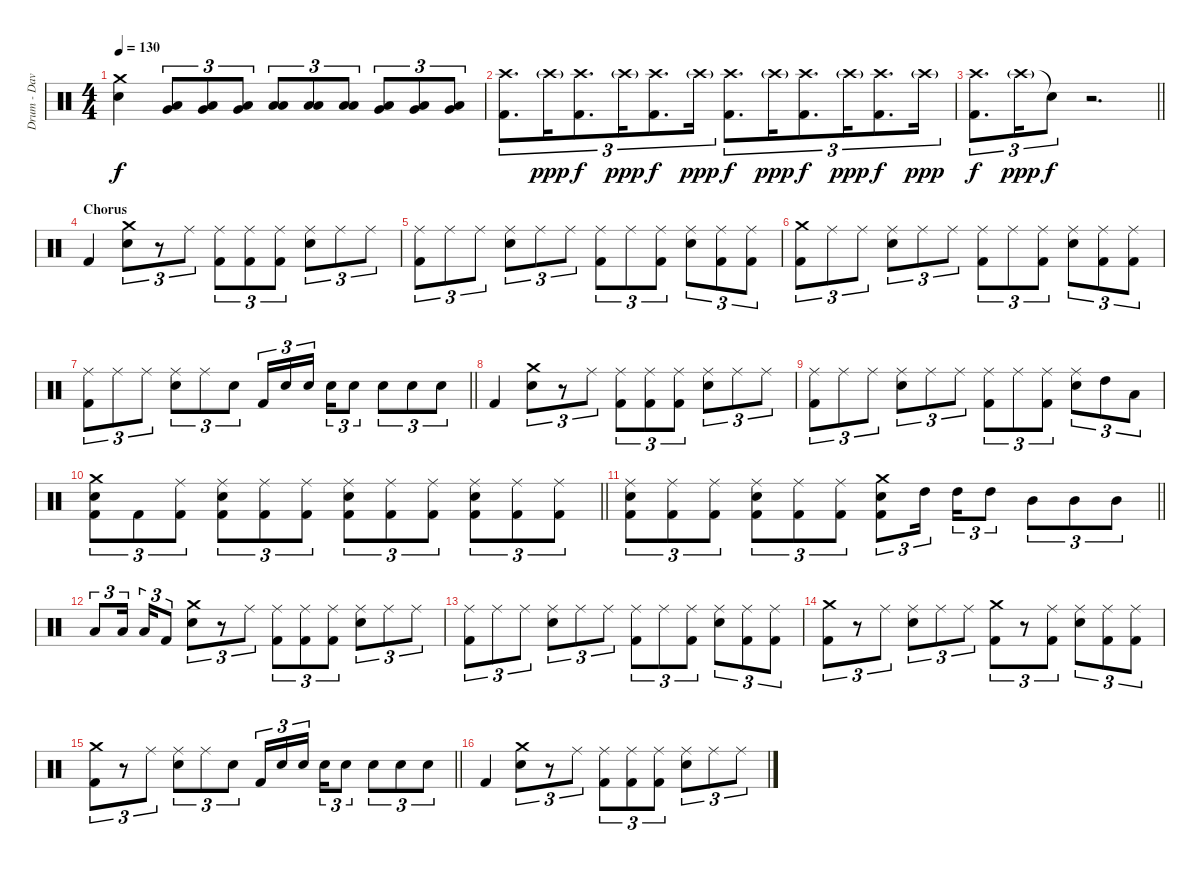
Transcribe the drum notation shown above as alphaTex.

\track ("Drum - Dave Mackintosh" "Drum - Dav") {instrument percussion}
\staff {score}
\articulation defaults
\ts (4 4)
\tempo 130
\clef neutral
\ks c
("Crash medium (hit)" "Electric Snare (hit)").4{dy f} ("Low Tom (hit)" "Very Low Tom (hit)").8{tu (3 2)} ("Low Tom (hit)" "Very Low Tom (hit)").8{tu (3 2)} ("Low Tom (hit)" "Very Low Tom (hit)").8{tu (3 2)} ("Low Tom (hit)" "Low Floor Tom (hit)").8{tu (3 2)} ("Low Tom (hit)" "Low Floor Tom (hit)").8{tu (3 2)} ("Low Tom (hit)" "Low Floor Tom (hit)").8{tu (3 2)} ("Very Low Tom (hit)" "Low Floor Tom (hit)").8{tu (3 2)} ("Very Low Tom (hit)" "Low Floor Tom (hit)").8{tu (3 2)} ("Very Low Tom (hit)" "Low Floor Tom (hit)").8{tu (3 2)} |
("Crash high (hit)" "Kick (hit) 2").8{d tu (3 2)} "Crash high (hit)"{g}.16{tu (3 2) dy ppp} ("Crash high (hit)" "Kick (hit) 2").8{d tu (3 2) dy f} "Crash high (hit)"{g}.16{tu (3 2) dy ppp} ("Crash high (hit)" "Kick (hit) 2").8{d tu (3 2) dy f} "Crash high (hit)"{g}.16{tu (3 2) dy ppp} ("Crash high (hit)" "Kick (hit) 2").8{d tu (3 2) dy f} "Crash high (hit)"{g}.16{tu (3 2) dy ppp} ("Crash high (hit)" "Kick (hit) 2").8{d tu (3 2) dy f} "Crash high (hit)"{g}.16{tu (3 2) dy ppp} ("Crash high (hit)" "Kick (hit) 2").8{d tu (3 2) dy f} "Crash high (hit)"{g}.16{tu (3 2) dy ppp} |
\barLineRight lightlight
("Crash high (hit)" "Kick (hit) 2").8{d tu (3 2) dy f} "Crash high (hit)"{g}.16{tu (3 2) dy ppp} "Snare (hit)"{t}.8{tu (3 2) dy f} r.2{d} |
\section ("" "Chorus")
"Kick (hit) 2".4 ("Crash medium (hit)" "Electric Snare (hit)").8{tu (3 2)} r.8{tu (3 2)} "Ride (middle)".8{tu (3 2)} ("Ride (middle)" "Kick (hit) 2").8{tu (3 2)} ("Ride (middle)" "Kick (hit) 2").8{tu (3 2)} ("Ride (middle)" "Kick (hit) 2").8{tu (3 2)} ("Ride (middle)" "Electric Snare (hit)").8{tu (3 2)} "Ride (middle)".8{tu (3 2)} "Ride (middle)".8{tu (3 2)} |
("Ride (middle)" "Kick (hit) 2").8{tu (3 2)} "Ride (middle)".8{tu (3 2)} "Ride (middle)".8{tu (3 2)} ("Ride (middle)" "Electric Snare (hit)").8{tu (3 2)} "Ride (middle)".8{tu (3 2)} "Ride (middle)".8{tu (3 2)} ("Ride (middle)" "Kick (hit) 2").8{tu (3 2)} "Ride (middle)".8{tu (3 2)} ("Ride (middle)" "Kick (hit) 2").8{tu (3 2)} ("Ride (middle)" "Electric Snare (hit)").8{tu (3 2)} ("Ride (middle)" "Kick (hit) 2").8{tu (3 2)} ("Ride (middle)" "Kick (hit) 2").8{tu (3 2)} |
("Crash medium (hit)" "Kick (hit) 2").8{tu (3 2)} "Ride (middle)".8{tu (3 2)} "Ride (middle)".8{tu (3 2)} ("Ride (middle)" "Electric Snare (hit)").8{tu (3 2)} "Ride (middle)".8{tu (3 2)} "Ride (middle)".8{tu (3 2)} ("Ride (middle)" "Kick (hit) 2").8{tu (3 2)} "Ride (middle)".8{tu (3 2)} ("Ride (middle)" "Kick (hit) 2").8{tu (3 2)} ("Ride (middle)" "Electric Snare (hit)").8{tu (3 2)} ("Ride (middle)" "Kick (hit) 2").8{tu (3 2)} ("Ride (middle)" "Kick (hit) 2").8{tu (3 2)} |
\barLineRight lightlight
("Ride (middle)" "Kick (hit) 2").8{tu (3 2)} "Ride (middle)".8{tu (3 2)} "Ride (middle)".8{tu (3 2)} ("Ride (middle)" "Electric Snare (hit)").8{tu (3 2)} "Ride (middle)".8{tu (3 2)} "Electric Snare (hit)".8{tu (3 2)} "Kick (hit) 2".16{tu (3 2)} "Electric Snare (hit)".16{tu (3 2)} "Electric Snare (hit)".16{tu (3 2) beam splitsecondary} "Electric Snare (hit)".16{tu (3 2)} "Electric Snare (hit)".8{tu (3 2)} "Electric Snare (hit)".8{tu (3 2)} "Electric Snare (hit)".8{tu (3 2)} "Electric Snare (hit)".8{tu (3 2)} |
"Kick (hit) 2".4 ("Crash medium (hit)" "Electric Snare (hit)").8{tu (3 2)} r.8{tu (3 2)} "Ride (middle)".8{tu (3 2)} ("Ride (middle)" "Kick (hit) 2").8{tu (3 2)} ("Ride (middle)" "Kick (hit) 2").8{tu (3 2)} ("Ride (middle)" "Kick (hit) 2").8{tu (3 2)} ("Ride (middle)" "Electric Snare (hit)").8{tu (3 2)} "Ride (middle)".8{tu (3 2)} "Ride (middle)".8{tu (3 2)} |
("Ride (middle)" "Kick (hit) 2").8{tu (3 2)} "Ride (middle)".8{tu (3 2)} "Ride (middle)".8{tu (3 2)} ("Ride (middle)" "Electric Snare (hit)").8{tu (3 2)} "Ride (middle)".8{tu (3 2)} "Ride (middle)".8{tu (3 2)} ("Ride (middle)" "Kick (hit) 2").8{tu (3 2)} "Ride (middle)".8{tu (3 2)} ("Ride (middle)" "Kick (hit) 2").8{tu (3 2)} ("Ride (middle)" "Electric Snare (hit)").8{tu (3 2)} "High Tom (hit)".8{tu (3 2)} "Low Tom (hit)".8{tu (3 2)} |
\barLineRight lightlight
("Crash medium (hit)" "Electric Snare (hit)" "Kick (hit) 2").8{tu (3 2)} "Kick (hit) 2".8{tu (3 2)} ("Ride (middle)" "Kick (hit) 2").8{tu (3 2)} ("Ride (middle)" "Electric Snare (hit)" "Kick (hit) 2").8{tu (3 2)} ("Ride (middle)" "Kick (hit) 2").8{tu (3 2)} ("Ride (middle)" "Kick (hit) 2").8{tu (3 2)} ("Ride (middle)" "Electric Snare (hit)" "Kick (hit) 2").8{tu (3 2)} ("Ride (middle)" "Kick (hit) 2").8{tu (3 2)} ("Ride (middle)" "Kick (hit) 2").8{tu (3 2)} ("Ride (middle)" "Electric Snare (hit)" "Kick (hit) 2").8{tu (3 2)} ("Ride (middle)" "Kick (hit) 2").8{tu (3 2)} ("Ride (middle)" "Kick (hit) 2").8{tu (3 2)} |
\barLineRight lightlight
("Ride (middle)" "Electric Snare (hit)" "Kick (hit) 2").8{tu (3 2)} ("Ride (middle)" "Kick (hit) 2").8{tu (3 2)} ("Ride (middle)" "Kick (hit) 2").8{tu (3 2)} ("Ride (middle)" "Electric Snare (hit)" "Kick (hit) 2").8{tu (3 2)} ("Ride (middle)" "Kick (hit) 2").8{tu (3 2)} ("Ride (middle)" "Kick (hit) 2").8{tu (3 2)} ("Crash medium (hit)" "Electric Snare (hit)" "Kick (hit) 2").8{tu (3 2)} "High Tom (hit)".16{tu (3 2) beam splitsecondary} "High Tom (hit)".16{tu (3 2)} "High Tom (hit)".8{tu (3 2)} "Mid Tom (hit)".8{tu (3 2)} "Mid Tom (hit)".8{tu (3 2)} "Mid Tom (hit)".8{tu (3 2)} |
\section ("" "")
"Low Tom (hit)".8{tu (3 2)} "Low Tom (hit)".16{tu (3 2) beam splitsecondary} "Low Tom (hit)".16{tu (3 2)} "Kick (hit) 2".8{tu (3 2)} ("Crash medium (hit)" "Electric Snare (hit)").8{tu (3 2)} r.8{tu (3 2)} "Ride (middle)".8{tu (3 2)} ("Ride (middle)" "Kick (hit) 2").8{tu (3 2)} ("Ride (middle)" "Kick (hit) 2").8{tu (3 2)} ("Ride (middle)" "Kick (hit) 2").8{tu (3 2)} ("Ride (middle)" "Electric Snare (hit)").8{tu (3 2)} "Ride (middle)".8{tu (3 2)} "Ride (middle)".8{tu (3 2)} |
("Ride (middle)" "Kick (hit) 2").8{tu (3 2)} "Ride (middle)".8{tu (3 2)} "Ride (middle)".8{tu (3 2)} ("Ride (middle)" "Electric Snare (hit)").8{tu (3 2)} "Ride (middle)".8{tu (3 2)} "Ride (middle)".8{tu (3 2)} ("Ride (middle)" "Kick (hit) 2").8{tu (3 2)} "Ride (middle)".8{tu (3 2)} ("Ride (middle)" "Kick (hit) 2").8{tu (3 2)} ("Ride (middle)" "Electric Snare (hit)").8{tu (3 2)} ("Ride (middle)" "Kick (hit) 2").8{tu (3 2)} ("Ride (middle)" "Kick (hit) 2").8{tu (3 2)} |
("Crash medium (hit)" "Kick (hit) 2").8{tu (3 2)} r.8{tu (3 2)} "Ride (middle)".8{tu (3 2)} ("Ride (middle)" "Electric Snare (hit)").8{tu (3 2)} "Ride (middle)".8{tu (3 2)} "Ride (middle)".8{tu (3 2)} ("Crash medium (hit)" "Kick (hit) 2").8{tu (3 2)} r.8{tu (3 2)} ("Ride (middle)" "Kick (hit) 2").8{tu (3 2)} ("Ride (middle)" "Electric Snare (hit)").8{tu (3 2)} ("Ride (middle)" "Kick (hit) 2").8{tu (3 2)} ("Ride (middle)" "Kick (hit) 2").8{tu (3 2)} |
\barLineRight lightlight
("Crash medium (hit)" "Kick (hit) 2").8{tu (3 2)} r.8{tu (3 2)} "Ride (middle)".8{tu (3 2)} ("Ride (middle)" "Electric Snare (hit)").8{tu (3 2)} "Ride (middle)".8{tu (3 2)} "Electric Snare (hit)".8{tu (3 2)} "Kick (hit) 2".16{tu (3 2)} "Electric Snare (hit)".16{tu (3 2)} "Electric Snare (hit)".16{tu (3 2) beam splitsecondary} "Electric Snare (hit)".16{tu (3 2)} "Electric Snare (hit)".8{tu (3 2)} "Electric Snare (hit)".8{tu (3 2)} "Electric Snare (hit)".8{tu (3 2)} "Electric Snare (hit)".8{tu (3 2)} |
"Kick (hit) 2".4 ("Crash medium (hit)" "Electric Snare (hit)").8{tu (3 2)} r.8{tu (3 2)} "Ride (middle)".8{tu (3 2)} ("Ride (middle)" "Kick (hit) 2").8{tu (3 2)} ("Ride (middle)" "Kick (hit) 2").8{tu (3 2)} ("Ride (middle)" "Kick (hit) 2").8{tu (3 2)} ("Ride (middle)" "Electric Snare (hit)").8{tu (3 2)} "Ride (middle)".8{tu (3 2)} "Ride (middle)".8{tu (3 2)}
